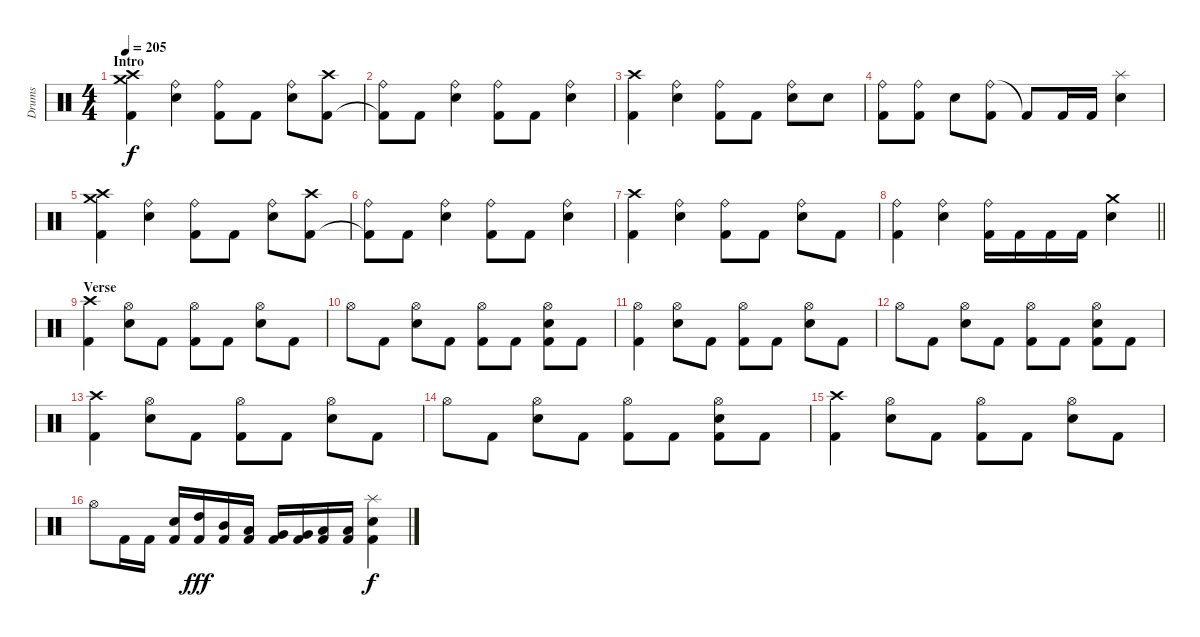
\track ("Drums" "Drums") {instrument percussion}
\staff {score}
\articulation defaults
\ts (4 4)
\section ("" "Intro")
\tempo 205
\clef neutral
\ks c
("Crash medium (hit)" "Crash high (hit)" "Kick (hit) 2").4{dy f} ("Ride (bell)" "Snare (hit) 2").4 ("Ride (bell)" "Kick (hit) 2").8 "Kick (hit) 2".8 ("Ride (bell)" "Snare (hit) 2").8 ("Crash high (hit)" "Kick (hit) 2").8 |
("Ride (bell)" "Kick (hit) 2"{t}).8 "Kick (hit) 2".8 ("Ride (bell)" "Snare (hit) 2").4 ("Ride (bell)" "Kick (hit) 2").8 "Kick (hit) 2".8 ("Ride (bell)" "Snare (hit) 2").4 |
("Crash high (hit)" "Kick (hit) 2").4 ("Ride (bell)" "Snare (hit) 2").4 ("Ride (bell)" "Kick (hit) 2").8 "Kick (hit) 2".8 ("Ride (bell)" "Snare (hit) 2").8 "Snare (hit) 2".8 |
("Ride (bell)" "Kick (hit) 2").8 ("Ride (bell)" "Kick (hit) 2").8 "Snare (hit) 2".8 ("Ride (bell)" "Kick (hit) 2").8 "Kick (hit) 2"{t}.8 "Kick (hit) 2".16 "Kick (hit) 2".16 ("Splash (hit)" "Snare (hit) 2").4 |
("Crash medium (hit)" "Crash high (hit)" "Kick (hit) 2").4 ("Ride (bell)" "Snare (hit) 2").4 ("Ride (bell)" "Kick (hit) 2").8 "Kick (hit) 2".8 ("Ride (bell)" "Snare (hit) 2").8 ("Crash high (hit)" "Kick (hit) 2").8 |
("Ride (bell)" "Kick (hit) 2"{t}).8 "Kick (hit) 2".8 ("Ride (bell)" "Snare (hit) 2").4 ("Ride (bell)" "Kick (hit) 2").8 "Kick (hit) 2".8 ("Ride (bell)" "Snare (hit) 2").4 |
("Crash high (hit)" "Kick (hit) 2").4 ("Ride (bell)" "Snare (hit) 2").4 ("Ride (bell)" "Kick (hit) 2").8 "Kick (hit) 2".8 ("Ride (bell)" "Snare (hit) 2").8 "Kick (hit) 2".8 |
\barLineRight lightlight
("Ride (bell)" "Kick (hit) 2").4 ("Ride (bell)" "Snare (hit) 2").4 ("Ride (bell)" "Kick (hit) 2").16 "Kick (hit) 2".16 "Kick (hit) 2".16 "Kick (hit) 2".16 ("Crash medium (hit)" "Snare (hit) 2").4 |
\section ("" "Verse")
("Crash high (hit)" "Kick (hit) 2").4 ("Hi-Hat (open)" "Snare (hit) 2").8 "Kick (hit) 2".8 ("Hi-Hat (open)" "Kick (hit) 2").8 "Kick (hit) 2".8 ("Hi-Hat (open)" "Snare (hit) 2").8 "Kick (hit) 2".8 |
"Hi-Hat (open)".8 "Kick (hit) 2".8 ("Hi-Hat (open)" "Snare (hit) 2").8 "Kick (hit) 2".8 ("Hi-Hat (open)" "Kick (hit) 2").8 "Kick (hit) 2".8 ("Hi-Hat (open)" "Snare (hit) 2" "Kick (hit) 2").8 "Kick (hit) 2".8 |
("Hi-Hat (open)" "Kick (hit) 2").4 ("Hi-Hat (open)" "Snare (hit) 2").8 "Kick (hit) 2".8 ("Hi-Hat (open)" "Kick (hit) 2").8 "Kick (hit) 2".8 ("Hi-Hat (open)" "Snare (hit) 2").8 "Kick (hit) 2".8 |
"Hi-Hat (open)".8 "Kick (hit) 2".8 ("Hi-Hat (open)" "Snare (hit) 2").8 "Kick (hit) 2".8 ("Hi-Hat (open)" "Kick (hit) 2").8 "Kick (hit) 2".8 ("Hi-Hat (open)" "Snare (hit) 2" "Kick (hit) 2").8 "Kick (hit) 2".8 |
("Crash high (hit)" "Kick (hit) 2").4 ("Hi-Hat (open)" "Snare (hit) 2").8 "Kick (hit) 2".8 ("Hi-Hat (open)" "Kick (hit) 2").8 "Kick (hit) 2".8 ("Hi-Hat (open)" "Snare (hit) 2").8 "Kick (hit) 2".8 |
"Hi-Hat (open)".8 "Kick (hit) 2".8 ("Hi-Hat (open)" "Snare (hit) 2").8 "Kick (hit) 2".8 ("Hi-Hat (open)" "Kick (hit) 2").8 "Kick (hit) 2".8 ("Hi-Hat (open)" "Snare (hit) 2" "Kick (hit) 2").8 "Kick (hit) 2".8 |
("Crash high (hit)" "Kick (hit) 2").4 ("Hi-Hat (open)" "Snare (hit) 2").8 "Kick (hit) 2".8 ("Hi-Hat (open)" "Kick (hit) 2").8 "Kick (hit) 2".8 ("Hi-Hat (open)" "Snare (hit) 2").8 "Kick (hit) 2".8 |
"Hi-Hat (open)".8 "Kick (hit) 2".16 "Kick (hit) 2".16 ("Snare (hit) 2" "Kick (hit) 2").16 ("High Tom (hit)" "Kick (hit) 2").16{dy fff} ("Mid Tom (hit)" "Kick (hit) 2").16 ("Low Tom (hit)" "Kick (hit) 2").16 ("Very Low Tom (hit)" "Kick (hit) 2").16 ("Very Low Tom (hit)" "Kick (hit) 2").16 ("Low Floor Tom (hit)" "Kick (hit) 2").16 ("Low Tom (hit)" "Kick (hit) 2").16 ("Splash (hit)" "Snare (hit) 2" "Kick (hit) 2").4{dy f}
